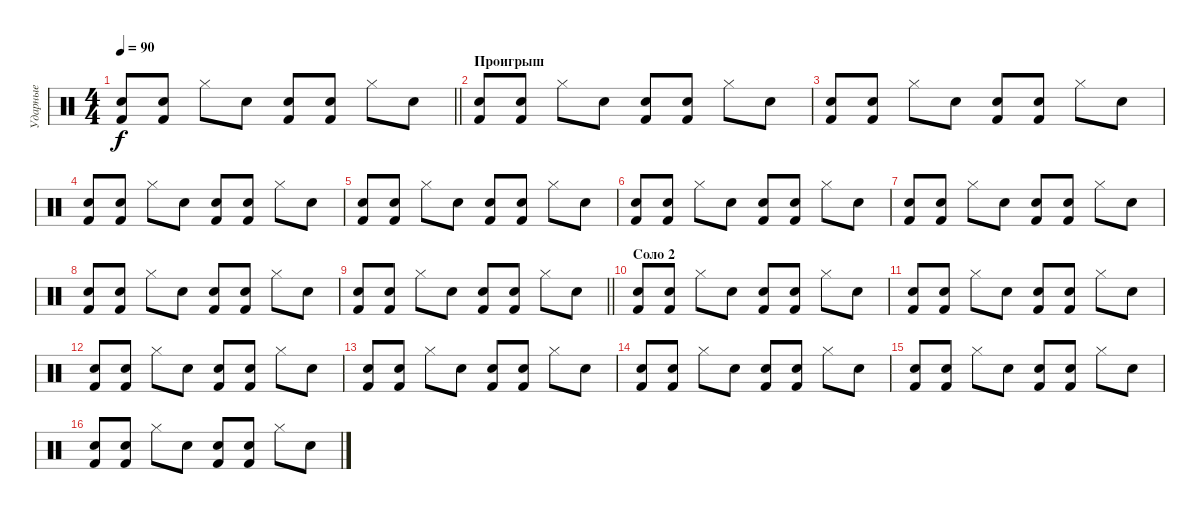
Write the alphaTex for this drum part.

\track ("Ударные" "Ударные") {instrument percussion}
\staff {score}
\articulation defaults
\ts (4 4)
\tempo 90
\clef neutral
\barLineRight lightlight
\ks c
("Kick (hit) 2" "Snare (hit) 2").8{dy f} ("Kick (hit) 2" "Snare (hit) 2").8 "Hi-Hat (closed)".8 "Snare (hit) 2".8 ("Kick (hit) 2" "Snare (hit) 2").8 ("Kick (hit) 2" "Snare (hit) 2").8 "Hi-Hat (closed)".8 "Snare (hit) 2".8 |
\section ("" "Проигрыш")
("Kick (hit) 2" "Snare (hit) 2").8 ("Kick (hit) 2" "Snare (hit) 2").8 "Hi-Hat (closed)".8 "Snare (hit) 2".8 ("Kick (hit) 2" "Snare (hit) 2").8 ("Kick (hit) 2" "Snare (hit) 2").8 "Hi-Hat (closed)".8 "Snare (hit) 2".8 |
("Kick (hit) 2" "Snare (hit) 2").8 ("Kick (hit) 2" "Snare (hit) 2").8 "Hi-Hat (closed)".8 "Snare (hit) 2".8 ("Kick (hit) 2" "Snare (hit) 2").8 ("Kick (hit) 2" "Snare (hit) 2").8 "Hi-Hat (closed)".8 "Snare (hit) 2".8 |
("Kick (hit) 2" "Snare (hit) 2").8 ("Kick (hit) 2" "Snare (hit) 2").8 "Hi-Hat (closed)".8 "Snare (hit) 2".8 ("Kick (hit) 2" "Snare (hit) 2").8 ("Kick (hit) 2" "Snare (hit) 2").8 "Hi-Hat (closed)".8 "Snare (hit) 2".8 |
("Kick (hit) 2" "Snare (hit) 2").8 ("Kick (hit) 2" "Snare (hit) 2").8 "Hi-Hat (closed)".8 "Snare (hit) 2".8 ("Kick (hit) 2" "Snare (hit) 2").8 ("Kick (hit) 2" "Snare (hit) 2").8 "Hi-Hat (closed)".8 "Snare (hit) 2".8 |
("Kick (hit) 2" "Snare (hit) 2").8 ("Kick (hit) 2" "Snare (hit) 2").8 "Hi-Hat (closed)".8 "Snare (hit) 2".8 ("Kick (hit) 2" "Snare (hit) 2").8 ("Kick (hit) 2" "Snare (hit) 2").8 "Hi-Hat (closed)".8 "Snare (hit) 2".8 |
("Kick (hit) 2" "Snare (hit) 2").8 ("Kick (hit) 2" "Snare (hit) 2").8 "Hi-Hat (closed)".8 "Snare (hit) 2".8 ("Kick (hit) 2" "Snare (hit) 2").8 ("Kick (hit) 2" "Snare (hit) 2").8 "Hi-Hat (closed)".8 "Snare (hit) 2".8 |
("Kick (hit) 2" "Snare (hit) 2").8 ("Kick (hit) 2" "Snare (hit) 2").8 "Hi-Hat (closed)".8 "Snare (hit) 2".8 ("Kick (hit) 2" "Snare (hit) 2").8 ("Kick (hit) 2" "Snare (hit) 2").8 "Hi-Hat (closed)".8 "Snare (hit) 2".8 |
\barLineRight lightlight
("Kick (hit) 2" "Snare (hit) 2").8 ("Kick (hit) 2" "Snare (hit) 2").8 "Hi-Hat (closed)".8 "Snare (hit) 2".8 ("Kick (hit) 2" "Snare (hit) 2").8 ("Kick (hit) 2" "Snare (hit) 2").8 "Hi-Hat (closed)".8 "Snare (hit) 2".8 |
\section ("" "Соло 2")
("Kick (hit) 2" "Snare (hit) 2").8 ("Kick (hit) 2" "Snare (hit) 2").8 "Hi-Hat (closed)".8 "Snare (hit) 2".8 ("Kick (hit) 2" "Snare (hit) 2").8 ("Kick (hit) 2" "Snare (hit) 2").8 "Hi-Hat (closed)".8 "Snare (hit) 2".8 |
("Kick (hit) 2" "Snare (hit) 2").8 ("Kick (hit) 2" "Snare (hit) 2").8 "Hi-Hat (closed)".8 "Snare (hit) 2".8 ("Kick (hit) 2" "Snare (hit) 2").8 ("Kick (hit) 2" "Snare (hit) 2").8 "Hi-Hat (closed)".8 "Snare (hit) 2".8 |
("Kick (hit) 2" "Snare (hit) 2").8 ("Kick (hit) 2" "Snare (hit) 2").8 "Hi-Hat (closed)".8 "Snare (hit) 2".8 ("Kick (hit) 2" "Snare (hit) 2").8 ("Kick (hit) 2" "Snare (hit) 2").8 "Hi-Hat (closed)".8 "Snare (hit) 2".8 |
("Kick (hit) 2" "Snare (hit) 2").8 ("Kick (hit) 2" "Snare (hit) 2").8 "Hi-Hat (closed)".8 "Snare (hit) 2".8 ("Kick (hit) 2" "Snare (hit) 2").8 ("Kick (hit) 2" "Snare (hit) 2").8 "Hi-Hat (closed)".8 "Snare (hit) 2".8 |
("Kick (hit) 2" "Snare (hit) 2").8 ("Kick (hit) 2" "Snare (hit) 2").8 "Hi-Hat (closed)".8 "Snare (hit) 2".8 ("Kick (hit) 2" "Snare (hit) 2").8 ("Kick (hit) 2" "Snare (hit) 2").8 "Hi-Hat (closed)".8 "Snare (hit) 2".8 |
("Kick (hit) 2" "Snare (hit) 2").8 ("Kick (hit) 2" "Snare (hit) 2").8 "Hi-Hat (closed)".8 "Snare (hit) 2".8 ("Kick (hit) 2" "Snare (hit) 2").8 ("Kick (hit) 2" "Snare (hit) 2").8 "Hi-Hat (closed)".8 "Snare (hit) 2".8 |
("Kick (hit) 2" "Snare (hit) 2").8 ("Kick (hit) 2" "Snare (hit) 2").8 "Hi-Hat (closed)".8 "Snare (hit) 2".8 ("Kick (hit) 2" "Snare (hit) 2").8 ("Kick (hit) 2" "Snare (hit) 2").8 "Hi-Hat (closed)".8 "Snare (hit) 2".8
